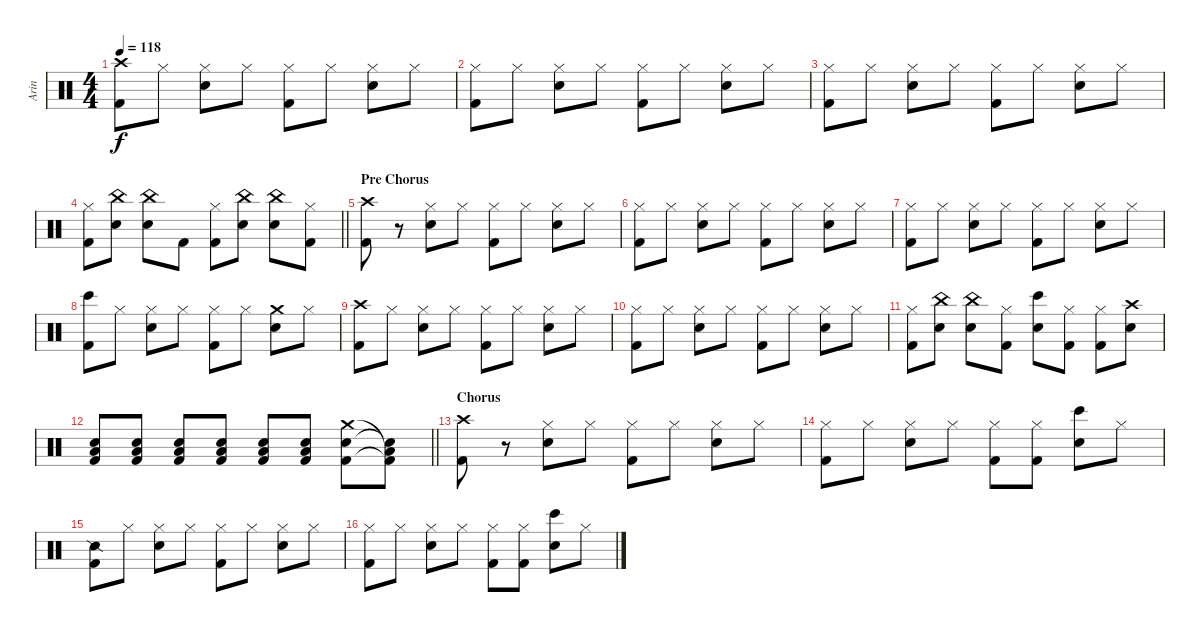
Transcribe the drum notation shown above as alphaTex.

\track ("Arin" "Arin") {instrument percussion}
\staff {score}
\articulation defaults
\ts (4 4)
\tempo 118
\clef neutral
\ks c
("Crash high (hit)" "Kick (hit) 2").8{dy f} "Hi-Hat (closed)".8 ("Hi-Hat (closed)" "Electric Snare (hit)").8 "Hi-Hat (closed)".8 ("Hi-Hat (closed)" "Kick (hit) 2").8 "Hi-Hat (closed)".8 ("Hi-Hat (closed)" "Electric Snare (hit)").8 "Hi-Hat (closed)".8 |
("Hi-Hat (closed)" "Kick (hit) 2").8 "Hi-Hat (closed)".8 ("Hi-Hat (closed)" "Electric Snare (hit)").8 "Hi-Hat (closed)".8 ("Hi-Hat (closed)" "Kick (hit) 2").8 "Hi-Hat (closed)".8 ("Hi-Hat (closed)" "Electric Snare (hit)").8 "Hi-Hat (closed)".8 |
("Hi-Hat (closed)" "Kick (hit) 2").8 "Hi-Hat (closed)".8 ("Hi-Hat (closed)" "Electric Snare (hit)").8 "Hi-Hat (closed)".8 ("Hi-Hat (closed)" "Kick (hit) 2").8 "Hi-Hat (closed)".8 ("Hi-Hat (closed)" "Electric Snare (hit)").8 "Hi-Hat (closed)".8 |
\barLineRight lightlight
("Hi-Hat (closed)" "Kick (hit) 2").8 ("China (hit)" "Electric Snare (hit)").8 ("China (hit)" "Electric Snare (hit)").8 "Kick (hit) 2".8 ("Hi-Hat (closed)" "Kick (hit) 2").8 ("China (hit)" "Electric Snare (hit)").8 ("China (hit)" "Electric Snare (hit)").8 ("Hi-Hat (closed)" "Kick (hit) 2").8 |
\section ("" "Pre Chorus")
("Crash high (hit)" "Kick (hit) 2").8 r.8 ("Hi-Hat (closed)" "Electric Snare (hit)").8 "Hi-Hat (closed)".8 ("Hi-Hat (closed)" "Kick (hit) 2").8 "Hi-Hat (closed)".8 ("Hi-Hat (closed)" "Electric Snare (hit)").8 "Hi-Hat (closed)".8 |
("Hi-Hat (closed)" "Kick (hit) 2").8 "Hi-Hat (closed)".8 ("Hi-Hat (closed)" "Electric Snare (hit)").8 "Hi-Hat (closed)".8 ("Hi-Hat (closed)" "Kick (hit) 2").8 "Hi-Hat (closed)".8 ("Hi-Hat (closed)" "Electric Snare (hit)").8 "Hi-Hat (closed)".8 |
("Hi-Hat (closed)" "Kick (hit) 2").8 "Hi-Hat (closed)".8 ("Hi-Hat (closed)" "Electric Snare (hit)").8 "Hi-Hat (closed)".8 ("Hi-Hat (closed)" "Kick (hit) 2").8 "Hi-Hat (closed)".8 ("Hi-Hat (closed)" "Electric Snare (hit)").8 "Hi-Hat (closed)".8 |
("Bongo High (hit)" "Kick (hit) 2").8 "Hi-Hat (closed)".8 ("Hi-Hat (closed)" "Electric Snare (hit)").8 "Hi-Hat (closed)".8 ("Hi-Hat (closed)" "Kick (hit) 2").8 "Hi-Hat (closed)".8 ("Crash medium (hit)" "Electric Snare (hit)").8 "Hi-Hat (closed)".8 |
("Crash high (hit)" "Kick (hit) 2").8 "Hi-Hat (closed)".8 ("Hi-Hat (closed)" "Electric Snare (hit)").8 "Hi-Hat (closed)".8 ("Hi-Hat (closed)" "Kick (hit) 2").8 "Hi-Hat (closed)".8 ("Hi-Hat (closed)" "Electric Snare (hit)").8 "Hi-Hat (closed)".8 |
("Hi-Hat (closed)" "Kick (hit) 2").8 "Hi-Hat (closed)".8 ("Hi-Hat (closed)" "Electric Snare (hit)").8 "Hi-Hat (closed)".8 ("Hi-Hat (closed)" "Kick (hit) 2").8 "Hi-Hat (closed)".8 ("Hi-Hat (closed)" "Electric Snare (hit)").8 "Hi-Hat (closed)".8 |
("Hi-Hat (closed)" "Kick (hit) 2").8 ("China (hit)" "Electric Snare (hit)").8 ("China (hit)" "Electric Snare (hit)").8 ("Hi-Hat (closed)" "Kick (hit) 2").8 ("Bongo High (hit)" "Electric Snare (hit)").8 ("Hi-Hat (closed)" "Kick (hit) 2").8 ("Hi-Hat (closed)" "Kick (hit) 2").8 ("Crash high (hit)" "Electric Snare (hit)").8 |
\barLineRight lightlight
("Electric Snare (hit)" "Low Tom (hit)" "Kick (hit) 2").8 ("Electric Snare (hit)" "Low Tom (hit)" "Kick (hit) 2").8 ("Electric Snare (hit)" "Low Tom (hit)" "Kick (hit) 2").8 ("Electric Snare (hit)" "Low Tom (hit)" "Kick (hit) 2").8 ("Electric Snare (hit)" "Low Tom (hit)" "Kick (hit) 2").8 ("Electric Snare (hit)" "Low Tom (hit)" "Kick (hit) 2").8 ("Electric Snare (hit)" "Crash medium (hit)" "Kick (hit) 2").8 ("Electric Snare (hit)"{t} "Low Tom (hit)"{t} "Kick (hit) 2"{t}).8 |
\section ("" "Chorus")
("Crash high (hit)" "Kick (hit) 2").8 r.8 ("Hi-Hat (closed)" "Electric Snare (hit)").8 "Hi-Hat (closed)".8 ("Hi-Hat (closed)" "Kick (hit) 2").8 "Hi-Hat (closed)".8 ("Hi-Hat (closed)" "Electric Snare (hit)").8 "Hi-Hat (closed)".8 |
("Hi-Hat (closed)" "Kick (hit) 2").8 "Hi-Hat (closed)".8 ("Hi-Hat (closed)" "Electric Snare (hit)").8 "Hi-Hat (closed)".8 ("Hi-Hat (closed)" "Kick (hit) 2").8 ("Hi-Hat (closed)" "Kick (hit) 2").8 ("Bongo High (hit)" "Electric Snare (hit)").8 "Hi-Hat (closed)".8 |
("Snare (side stick) 2" "Kick (hit) 2").8 "Hi-Hat (closed)".8 ("Hi-Hat (closed)" "Electric Snare (hit)").8 "Hi-Hat (closed)".8 ("Hi-Hat (closed)" "Kick (hit) 2").8 "Hi-Hat (closed)".8 ("Hi-Hat (closed)" "Electric Snare (hit)").8 "Hi-Hat (closed)".8 |
("Hi-Hat (closed)" "Kick (hit) 2").8 "Hi-Hat (closed)".8 ("Hi-Hat (closed)" "Electric Snare (hit)").8 "Hi-Hat (closed)".8 ("Hi-Hat (closed)" "Kick (hit) 2").8 ("Hi-Hat (closed)" "Kick (hit) 2").8 ("Bongo High (hit)" "Electric Snare (hit)").8 "Hi-Hat (closed)".8
